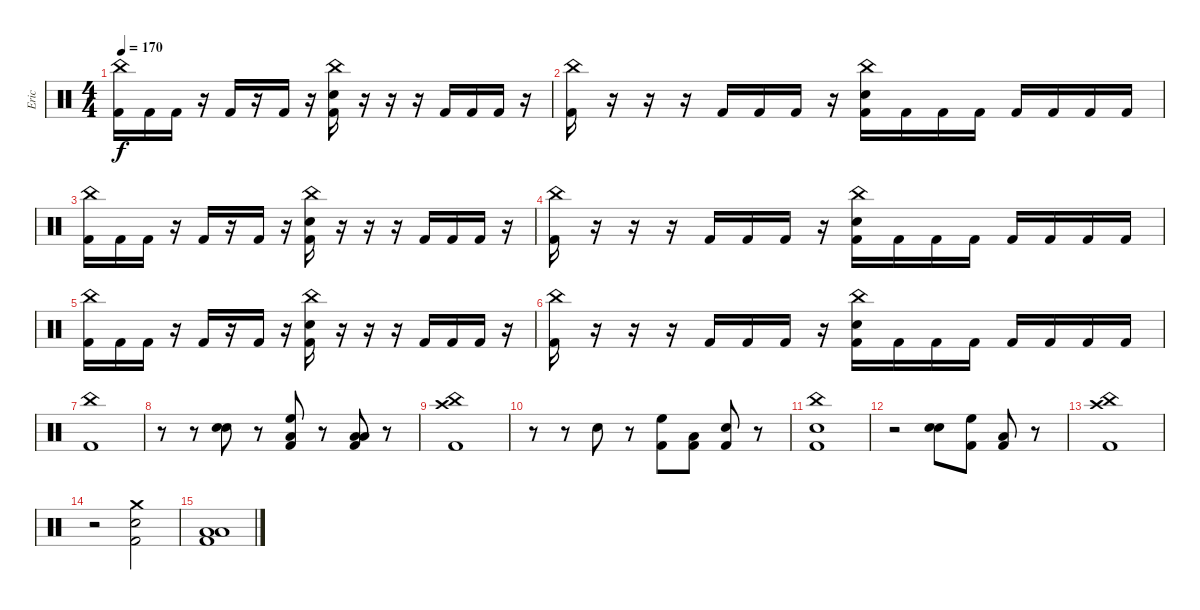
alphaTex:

\track ("Eric" "Eric") {instrument percussion}
\staff {score}
\articulation defaults
\ts (4 4)
\tempo 170
\clef neutral
\ks c
("China (hit)" "Kick (hit) 2").16{dy f} "Kick (hit) 2".16 "Kick (hit) 2".16 r.16 "Kick (hit) 2".16 r.16 "Kick (hit) 2".16 r.16 ("China (hit)" "Electric Snare (hit)" "Kick (hit) 2").16 r.16 r.16 r.16 "Kick (hit) 2".16 "Kick (hit) 2".16 "Kick (hit) 2".16 r.16 |
("China (hit)" "Kick (hit) 2").16 r.16 r.16 r.16 "Kick (hit) 2".16 "Kick (hit) 2".16 "Kick (hit) 2".16 r.16 ("China (hit)" "Electric Snare (hit)" "Kick (hit) 2").16 "Kick (hit) 2".16 "Kick (hit) 2".16 "Kick (hit) 2".16 "Kick (hit) 2".16 "Kick (hit) 2".16 "Kick (hit) 2".16 "Kick (hit) 2".16 |
("China (hit)" "Kick (hit) 2").16 "Kick (hit) 2".16 "Kick (hit) 2".16 r.16 "Kick (hit) 2".16 r.16 "Kick (hit) 2".16 r.16 ("China (hit)" "Electric Snare (hit)" "Kick (hit) 2").16 r.16 r.16 r.16 "Kick (hit) 2".16 "Kick (hit) 2".16 "Kick (hit) 2".16 r.16 |
("China (hit)" "Kick (hit) 2").16 r.16 r.16 r.16 "Kick (hit) 2".16 "Kick (hit) 2".16 "Kick (hit) 2".16 r.16 ("China (hit)" "Electric Snare (hit)" "Kick (hit) 2").16 "Kick (hit) 2".16 "Kick (hit) 2".16 "Kick (hit) 2".16 "Kick (hit) 2".16 "Kick (hit) 2".16 "Kick (hit) 2".16 "Kick (hit) 2".16 |
("China (hit)" "Kick (hit) 2").16 "Kick (hit) 2".16 "Kick (hit) 2".16 r.16 "Kick (hit) 2".16 r.16 "Kick (hit) 2".16 r.16 ("China (hit)" "Electric Snare (hit)" "Kick (hit) 2").16 r.16 r.16 r.16 "Kick (hit) 2".16 "Kick (hit) 2".16 "Kick (hit) 2".16 r.16 |
("China (hit)" "Kick (hit) 2").16 r.16 r.16 r.16 "Kick (hit) 2".16 "Kick (hit) 2".16 "Kick (hit) 2".16 r.16 ("China (hit)" "Electric Snare (hit)" "Kick (hit) 2").16 "Kick (hit) 2".16 "Kick (hit) 2".16 "Kick (hit) 2".16 "Kick (hit) 2".16 "Kick (hit) 2".16 "Kick (hit) 2".16 "Kick (hit) 2".16 |
("China (hit)" "Kick (hit) 2").1 |
r.8 r.8 ("Electric Snare (hit)" "Electric Snare (hit)").8 r.8 ("High Floor Tom (hit)" "Low Tom (hit)" "Kick (hit) 2").8 r.8 ("Low Tom (hit)" "Low Floor Tom (hit)" "Kick (hit) 2").8 r.8 |
("China (hit)" "Crash high (hit)" "Kick (hit) 2").1 |
r.8 r.8 "Electric Snare (hit)".8 r.8 ("High Floor Tom (hit)" "Kick (hit) 2").8 ("Low Tom (hit)" "Kick (hit) 2").8 ("Electric Snare (hit)" "Kick (hit) 2").8 r.8 |
("China (hit)" "Electric Snare (hit)" "Kick (hit) 2").1 |
r.2 ("Electric Snare (hit)" "Electric Snare (hit)").8 ("High Floor Tom (hit)" "Kick (hit) 2").8 ("Low Tom (hit)" "Kick (hit) 2").8 r.8 |
("China (hit)" "Crash high (hit)" "Kick (hit) 2").1 |
r.2 ("Crash medium (hit)" "Electric Snare (hit)" "Kick (hit) 2").2 |
("Low Floor Tom (hit)" "Low Tom (hit)" "Kick (hit) 2").1
